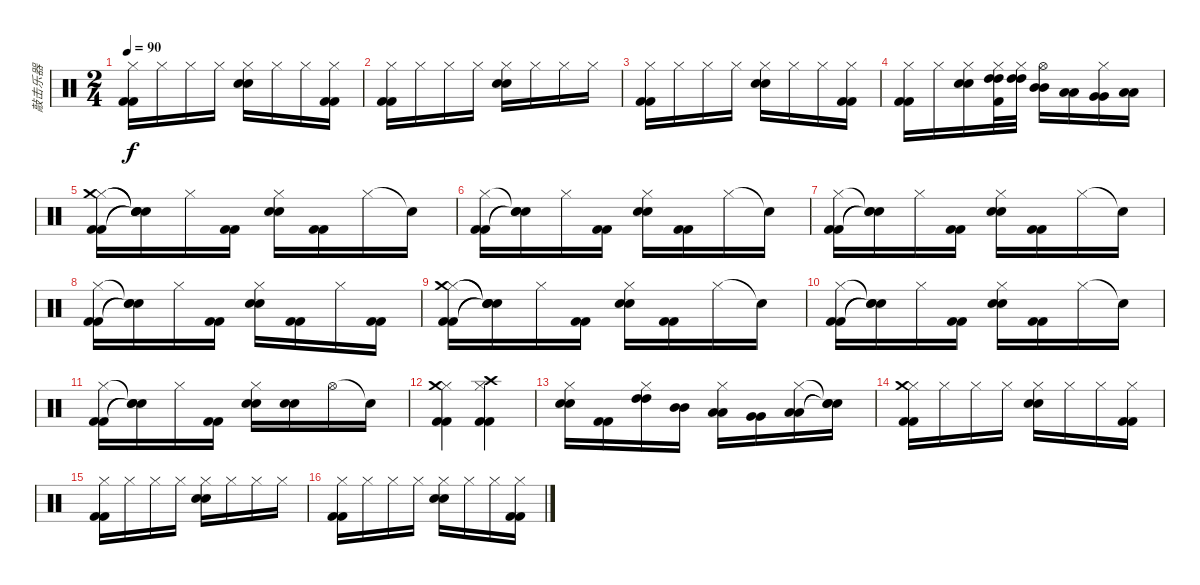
\track ("敲击乐器" "敲击乐器") {instrument percussion}
\staff {score}
\articulation defaults
\ts (2 4)
\tempo 90
\clef neutral
\ks c
("Hi-Hat (closed)" "Kick (hit) 2" "Kick (hit) 2").16{dy f} "Hi-Hat (closed)".16 "Hi-Hat (closed)".16 "Hi-Hat (closed)".16 ("Hi-Hat (closed)" "Electric Snare (hit)" "Electric Snare (hit)").16 "Hi-Hat (closed)".16 "Hi-Hat (closed)".16 ("Hi-Hat (closed)" "Kick (hit) 2" "Kick (hit) 2").16 |
("Hi-Hat (closed)" "Kick (hit) 2" "Kick (hit) 2").16 "Hi-Hat (closed)".16 "Hi-Hat (closed)".16 "Hi-Hat (closed)".16 ("Hi-Hat (closed)" "Electric Snare (hit)" "Electric Snare (hit)").16 "Hi-Hat (closed)".16 "Hi-Hat (closed)".16 "Hi-Hat (closed)".16 |
("Hi-Hat (closed)" "Kick (hit) 2" "Kick (hit) 2").16 "Hi-Hat (closed)".16 "Hi-Hat (closed)".16 "Hi-Hat (closed)".16 ("Hi-Hat (closed)" "Electric Snare (hit)" "Electric Snare (hit)").16 "Hi-Hat (closed)".16 "Hi-Hat (closed)".16 ("Hi-Hat (closed)" "Kick (hit) 2" "Kick (hit) 2").16 |
("Hi-Hat (closed)" "Kick (hit) 2" "Kick (hit) 2").16 "Hi-Hat (closed)".16 ("Hi-Hat (closed)" "Electric Snare (hit)" "Electric Snare (hit)").16 ("Hi-Hat (closed)" "High Tom (hit)" "High Tom (hit)" "Kick (hit) 2").32 ("Hi-Hat (closed)" "High Tom (hit)" "High Tom (hit)").32 ("Hi-Hat (open)" "Mid Tom (hit)" "Mid Tom (hit)").16 ("Low Tom (hit)" "Low Tom (hit)").16 ("Hi-Hat (closed)" "Very Low Tom (hit)" "Very Low Tom (hit)").16 ("Low Floor Tom (hit)" "Low Floor Tom (hit)").16 |
("Hi-Hat (closed)" "Crash medium (hit)" "Kick (hit) 2" "Kick (hit) 2").16 ("Snare (hit)"{t} "Snare (hit)"{t} "Snare (hit)"{t} "Snare (hit)"{t}).16 "Hi-Hat (closed)".16 ("Kick (hit) 2" "Kick (hit) 2").16 ("Hi-Hat (closed)" "Electric Snare (hit)" "Electric Snare (hit)").16 ("Kick (hit) 2" "Kick (hit) 2").16 "Hi-Hat (closed)".16 "Snare (hit)"{t}.16 |
("Hi-Hat (closed)" "Kick (hit) 2" "Kick (hit) 2").16 ("Snare (hit)"{t} "Snare (hit)"{t} "Snare (hit)"{t}).16 "Hi-Hat (closed)".16 ("Kick (hit) 2" "Kick (hit) 2").16 ("Hi-Hat (closed)" "Electric Snare (hit)" "Electric Snare (hit)").16 ("Kick (hit) 2" "Kick (hit) 2").16 "Hi-Hat (closed)".16 "Snare (hit)"{t}.16 |
("Hi-Hat (closed)" "Kick (hit) 2" "Kick (hit) 2").16 ("Snare (hit)"{t} "Snare (hit)"{t} "Snare (hit)"{t}).16 "Hi-Hat (closed)".16 ("Kick (hit) 2" "Kick (hit) 2").16 ("Hi-Hat (closed)" "Electric Snare (hit)" "Electric Snare (hit)").16 ("Kick (hit) 2" "Kick (hit) 2").16 "Hi-Hat (closed)".16 "Snare (hit)"{t}.16 |
("Hi-Hat (closed)" "Kick (hit) 2" "Kick (hit) 2").16 ("Snare (hit)"{t} "Snare (hit)"{t} "Snare (hit)"{t}).16 "Hi-Hat (closed)".16 ("Kick (hit) 2" "Kick (hit) 2").16 ("Hi-Hat (closed)" "Electric Snare (hit)" "Electric Snare (hit)").16 ("Kick (hit) 2" "Kick (hit) 2").16 "Hi-Hat (closed)".16 ("Kick (hit) 2" "Kick (hit) 2").16 |
("Hi-Hat (closed)" "Crash medium (hit)" "Kick (hit) 2" "Kick (hit) 2").16 ("Snare (hit)"{t} "Snare (hit)"{t} "Snare (hit)"{t} "Snare (hit)"{t}).16 "Hi-Hat (closed)".16 ("Kick (hit) 2" "Kick (hit) 2").16 ("Hi-Hat (closed)" "Electric Snare (hit)" "Electric Snare (hit)").16 ("Kick (hit) 2" "Kick (hit) 2").16 "Hi-Hat (closed)".16 "Snare (hit)"{t}.16 |
("Hi-Hat (closed)" "Kick (hit) 2" "Kick (hit) 2").16 ("Snare (hit)"{t} "Snare (hit)"{t} "Snare (hit)"{t}).16 "Hi-Hat (closed)".16 ("Kick (hit) 2" "Kick (hit) 2").16 ("Hi-Hat (closed)" "Electric Snare (hit)" "Electric Snare (hit)").16 ("Kick (hit) 2" "Kick (hit) 2").16 "Hi-Hat (closed)".16 "Snare (hit)"{t}.16 |
("Hi-Hat (closed)" "Kick (hit) 2" "Kick (hit) 2").16 ("Snare (hit)"{t} "Snare (hit)"{t} "Snare (hit)"{t}).16 "Hi-Hat (closed)".16 ("Kick (hit) 2" "Kick (hit) 2").16 ("Hi-Hat (closed)" "Electric Snare (hit)" "Electric Snare (hit)").16 ("Electric Snare (hit)" "Electric Snare (hit)").16 "Hi-Hat (open)".16 "Snare (hit)"{t}.16 |
("Hi-Hat (closed)" "Crash medium (hit)" "Kick (hit) 2" "Kick (hit) 2").4 ("Hi-Hat (closed)" "Crash high (hit)" "Kick (hit) 2" "Kick (hit) 2").4 |
("Hi-Hat (closed)" "Electric Snare (hit)" "Electric Snare (hit)").16 ("Kick (hit) 2" "Kick (hit) 2").16 ("Hi-Hat (closed)" "High Tom (hit)" "High Tom (hit)").16 ("Mid Tom (hit)" "Mid Tom (hit)").16 ("Hi-Hat (closed)" "Low Tom (hit)" "Low Tom (hit)").16 ("Very Low Tom (hit)" "Very Low Tom (hit)").16 ("Hi-Hat (closed)" "Low Floor Tom (hit)" "Low Floor Tom (hit)").16 ("Snare (hit)"{t} "Snare (hit)"{t} "Snare (hit)"{t}).16 |
("Hi-Hat (closed)" "Crash medium (hit)" "Kick (hit) 2" "Kick (hit) 2").16 "Hi-Hat (closed)".16 "Hi-Hat (closed)".16 "Hi-Hat (closed)".16 ("Hi-Hat (closed)" "Electric Snare (hit)" "Electric Snare (hit)").16 "Hi-Hat (closed)".16 "Hi-Hat (closed)".16 ("Hi-Hat (closed)" "Kick (hit) 2" "Kick (hit) 2").16 |
("Hi-Hat (closed)" "Kick (hit) 2" "Kick (hit) 2").16 "Hi-Hat (closed)".16 "Hi-Hat (closed)".16 "Hi-Hat (closed)".16 ("Hi-Hat (closed)" "Electric Snare (hit)" "Electric Snare (hit)").16 "Hi-Hat (closed)".16 "Hi-Hat (closed)".16 "Hi-Hat (closed)".16 |
("Hi-Hat (closed)" "Kick (hit) 2" "Kick (hit) 2").16 "Hi-Hat (closed)".16 "Hi-Hat (closed)".16 "Hi-Hat (closed)".16 ("Hi-Hat (closed)" "Electric Snare (hit)" "Electric Snare (hit)").16 "Hi-Hat (closed)".16 "Hi-Hat (closed)".16 ("Hi-Hat (closed)" "Kick (hit) 2" "Kick (hit) 2").16
